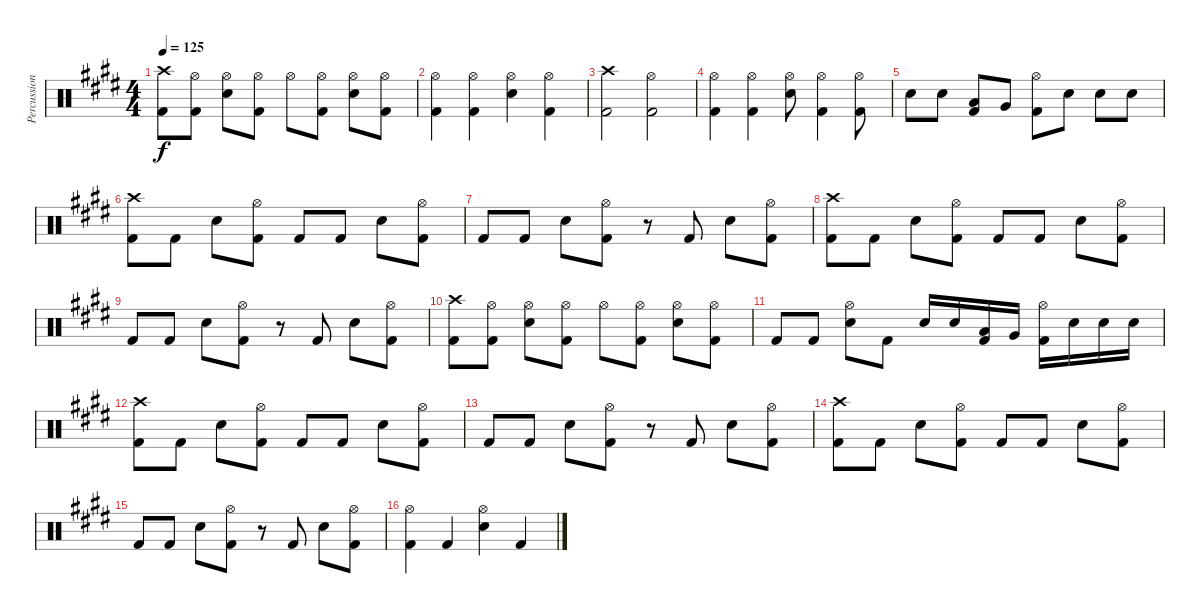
\track ("Percussion" "Percussion") {instrument percussion}
\staff {score}
\articulation defaults
\ts (4 4)
\tempo 125
\clef neutral
\ks e
("Crash high (hit)" "Kick (hit) 2").8{dy f} ("Hi-Hat (open)" "Kick (hit) 2").8 ("Hi-Hat (open)" "Electric Snare (hit)").8 ("Hi-Hat (open)" "Kick (hit) 2").8 "Hi-Hat (open)".8 ("Hi-Hat (open)" "Kick (hit) 2").8 ("Hi-Hat (open)" "Electric Snare (hit)").8 ("Hi-Hat (open)" "Kick (hit) 2").8 |
("Hi-Hat (open)" "Kick (hit) 2").4 ("Hi-Hat (open)" "Kick (hit) 2").4 ("Hi-Hat (open)" "Electric Snare (hit)").4 ("Hi-Hat (open)" "Kick (hit) 2").4 |
("Crash high (hit)" "Kick (hit) 2").2 ("Hi-Hat (open)" "Kick (hit) 2").2 |
("Hi-Hat (open)" "Kick (hit) 2").4 ("Hi-Hat (open)" "Kick (hit) 2").4 ("Hi-Hat (open)" "Electric Snare (hit)").8 ("Hi-Hat (open)" "Kick (hit) 2").4 ("Hi-Hat (open)" "Kick (hit) 2").8 |
"Electric Snare (hit)".8 "Electric Snare (hit)".8 ("Low Tom (hit)" "Kick (hit) 2").8 "Very Low Tom (hit)".8 ("Hi-Hat (open)" "Kick (hit) 2").8 "Electric Snare (hit)".8 "Electric Snare (hit)".8 "Electric Snare (hit)".8 |
("Crash high (hit)" "Kick (hit) 2").8 "Kick (hit) 2".8 "Electric Snare (hit)".8 ("Hi-Hat (open)" "Kick (hit) 2").8 "Kick (hit) 2".8 "Kick (hit) 2".8 "Electric Snare (hit)".8 ("Hi-Hat (open)" "Kick (hit) 2").8 |
"Kick (hit) 2".8 "Kick (hit) 2".8 "Electric Snare (hit)".8 ("Hi-Hat (open)" "Kick (hit) 2").8 r.8 "Kick (hit) 2".8 "Electric Snare (hit)".8 ("Hi-Hat (open)" "Kick (hit) 2").8 |
("Crash high (hit)" "Kick (hit) 2").8 "Kick (hit) 2".8 "Electric Snare (hit)".8 ("Hi-Hat (open)" "Kick (hit) 2").8 "Kick (hit) 2".8 "Kick (hit) 2".8 "Electric Snare (hit)".8 ("Hi-Hat (open)" "Kick (hit) 2").8 |
"Kick (hit) 2".8 "Kick (hit) 2".8 "Electric Snare (hit)".8 ("Hi-Hat (open)" "Kick (hit) 2").8 r.8 "Kick (hit) 2".8 "Electric Snare (hit)".8 ("Hi-Hat (open)" "Kick (hit) 2").8 |
("Crash high (hit)" "Kick (hit) 2").8 ("Hi-Hat (open)" "Kick (hit) 2").8 ("Hi-Hat (open)" "Electric Snare (hit)").8 ("Hi-Hat (open)" "Kick (hit) 2").8 "Hi-Hat (open)".8 ("Hi-Hat (open)" "Kick (hit) 2").8 ("Hi-Hat (open)" "Electric Snare (hit)").8 ("Hi-Hat (open)" "Kick (hit) 2").8 |
"Kick (hit) 2".8 "Kick (hit) 2".8 ("Hi-Hat (open)" "Electric Snare (hit)").8 "Kick (hit) 2".8 "Electric Snare (hit)".16 "Electric Snare (hit)".16 ("Low Tom (hit)" "Kick (hit) 2").16 "Very Low Tom (hit)".16 ("Hi-Hat (open)" "Kick (hit) 2").16 "Electric Snare (hit)".16 "Electric Snare (hit)".16 "Electric Snare (hit)".16 |
("Crash high (hit)" "Kick (hit) 2").8 "Kick (hit) 2".8 "Electric Snare (hit)".8 ("Hi-Hat (open)" "Kick (hit) 2").8 "Kick (hit) 2".8 "Kick (hit) 2".8 "Electric Snare (hit)".8 ("Hi-Hat (open)" "Kick (hit) 2").8 |
"Kick (hit) 2".8 "Kick (hit) 2".8 "Electric Snare (hit)".8 ("Hi-Hat (open)" "Kick (hit) 2").8 r.8 "Kick (hit) 2".8 "Electric Snare (hit)".8 ("Hi-Hat (open)" "Kick (hit) 2").8 |
("Crash high (hit)" "Kick (hit) 2").8 "Kick (hit) 2".8 "Electric Snare (hit)".8 ("Hi-Hat (open)" "Kick (hit) 2").8 "Kick (hit) 2".8 "Kick (hit) 2".8 "Electric Snare (hit)".8 ("Hi-Hat (open)" "Kick (hit) 2").8 |
"Kick (hit) 2".8 "Kick (hit) 2".8 "Electric Snare (hit)".8 ("Hi-Hat (open)" "Kick (hit) 2").8 r.8 "Kick (hit) 2".8 "Electric Snare (hit)".8 ("Hi-Hat (open)" "Kick (hit) 2").8 |
("Hi-Hat (open)" "Kick (hit) 2").4 "Kick (hit) 2".4 ("Hi-Hat (open)" "Electric Snare (hit)").4 "Kick (hit) 2".4
